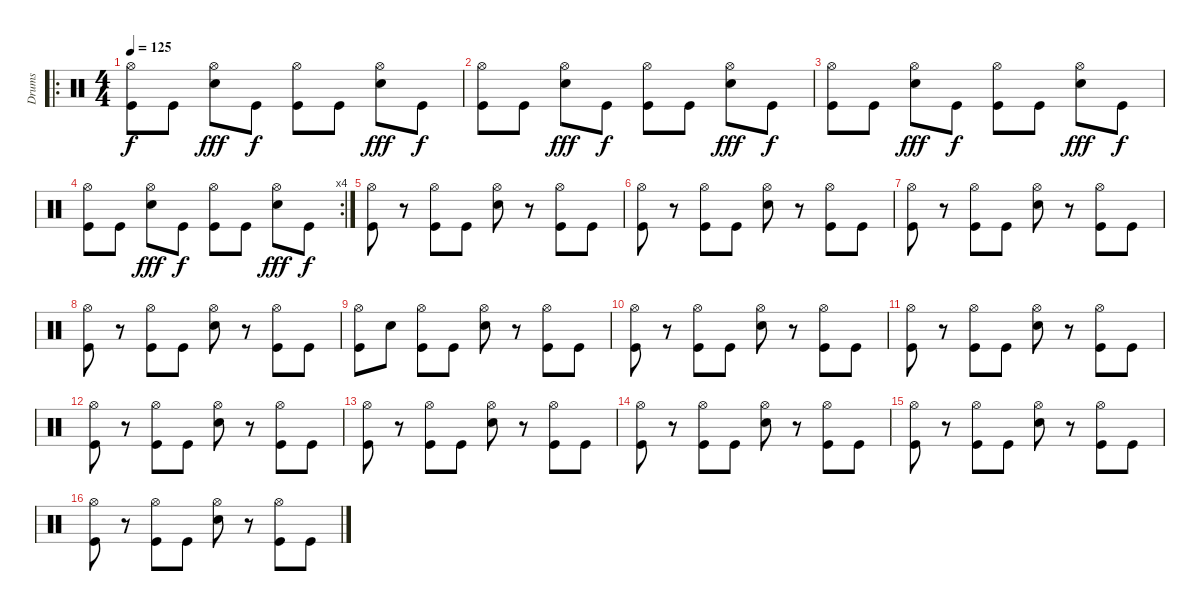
\track ("Drums" "Drums") {instrument percussion}
\staff {score}
\articulation defaults
\ro
\ts (4 4)
\tempo 125
\clef neutral
\ks c
("Hi-Hat (open)" "Kick (hit)").8{dy f} "Kick (hit)".8 ("Hi-Hat (open)" "Snare (hit) 2").8{dy fff} "Kick (hit)".8{dy f} ("Hi-Hat (open)" "Kick (hit)").8 "Kick (hit)".8 ("Hi-Hat (open)" "Snare (hit) 2").8{dy fff} "Kick (hit)".8{dy f} |
("Hi-Hat (open)" "Kick (hit)").8 "Kick (hit)".8 ("Hi-Hat (open)" "Snare (hit) 2").8{dy fff} "Kick (hit)".8{dy f} ("Hi-Hat (open)" "Kick (hit)").8 "Kick (hit)".8 ("Hi-Hat (open)" "Snare (hit) 2").8{dy fff} "Kick (hit)".8{dy f} |
("Hi-Hat (open)" "Kick (hit)").8 "Kick (hit)".8 ("Hi-Hat (open)" "Snare (hit) 2").8{dy fff} "Kick (hit)".8{dy f} ("Hi-Hat (open)" "Kick (hit)").8 "Kick (hit)".8 ("Hi-Hat (open)" "Snare (hit) 2").8{dy fff} "Kick (hit)".8{dy f} |
\rc 4
("Hi-Hat (open)" "Kick (hit)").8 "Kick (hit)".8 ("Hi-Hat (open)" "Snare (hit) 2").8{dy fff} "Kick (hit)".8{dy f} ("Hi-Hat (open)" "Kick (hit)").8 "Kick (hit)".8 ("Hi-Hat (open)" "Snare (hit) 2").8{dy fff} "Kick (hit)".8{dy f} |
("Hi-Hat (open)" "Kick (hit)").8 r.8 ("Hi-Hat (open)" "Kick (hit)").8 "Kick (hit)".8 ("Hi-Hat (open)" "Snare (hit) 2").8 r.8 ("Hi-Hat (open)" "Kick (hit)").8 "Kick (hit)".8 |
("Hi-Hat (open)" "Kick (hit)").8 r.8 ("Hi-Hat (open)" "Kick (hit)").8 "Kick (hit)".8 ("Hi-Hat (open)" "Snare (hit) 2").8 r.8 ("Hi-Hat (open)" "Kick (hit)").8 "Kick (hit)".8 |
("Hi-Hat (open)" "Kick (hit)").8 r.8 ("Hi-Hat (open)" "Kick (hit)").8 "Kick (hit)".8 ("Hi-Hat (open)" "Snare (hit) 2").8 r.8 ("Hi-Hat (open)" "Kick (hit)").8 "Kick (hit)".8 |
("Hi-Hat (open)" "Kick (hit)").8 r.8 ("Hi-Hat (open)" "Kick (hit)").8 "Kick (hit)".8 ("Hi-Hat (open)" "Snare (hit) 2").8 r.8 ("Hi-Hat (open)" "Kick (hit)").8 "Kick (hit)".8 |
("Hi-Hat (open)" "Kick (hit)").8 "Snare (hit)".8 ("Hi-Hat (open)" "Kick (hit)").8 "Kick (hit)".8 ("Hi-Hat (open)" "Snare (hit) 2").8 r.8 ("Hi-Hat (open)" "Kick (hit)").8 "Kick (hit)".8 |
("Hi-Hat (open)" "Kick (hit)").8 r.8 ("Hi-Hat (open)" "Kick (hit)").8 "Kick (hit)".8 ("Hi-Hat (open)" "Snare (hit) 2").8 r.8 ("Hi-Hat (open)" "Kick (hit)").8 "Kick (hit)".8 |
("Hi-Hat (open)" "Kick (hit)").8 r.8 ("Hi-Hat (open)" "Kick (hit)").8 "Kick (hit)".8 ("Hi-Hat (open)" "Snare (hit) 2").8 r.8 ("Hi-Hat (open)" "Kick (hit)").8 "Kick (hit)".8 |
("Hi-Hat (open)" "Kick (hit)").8 r.8 ("Hi-Hat (open)" "Kick (hit)").8 "Kick (hit)".8 ("Hi-Hat (open)" "Snare (hit) 2").8 r.8 ("Hi-Hat (open)" "Kick (hit)").8 "Kick (hit)".8 |
("Hi-Hat (open)" "Kick (hit)").8 r.8 ("Hi-Hat (open)" "Kick (hit)").8 "Kick (hit)".8 ("Hi-Hat (open)" "Snare (hit) 2").8 r.8 ("Hi-Hat (open)" "Kick (hit)").8 "Kick (hit)".8 |
("Hi-Hat (open)" "Kick (hit)").8 r.8 ("Hi-Hat (open)" "Kick (hit)").8 "Kick (hit)".8 ("Hi-Hat (open)" "Snare (hit) 2").8 r.8 ("Hi-Hat (open)" "Kick (hit)").8 "Kick (hit)".8 |
("Hi-Hat (open)" "Kick (hit)").8 r.8 ("Hi-Hat (open)" "Kick (hit)").8 "Kick (hit)".8 ("Hi-Hat (open)" "Snare (hit) 2").8 r.8 ("Hi-Hat (open)" "Kick (hit)").8 "Kick (hit)".8 |
("Hi-Hat (open)" "Kick (hit)").8 r.8 ("Hi-Hat (open)" "Kick (hit)").8 "Kick (hit)".8 ("Hi-Hat (open)" "Snare (hit) 2").8 r.8 ("Hi-Hat (open)" "Kick (hit)").8 "Kick (hit)".8
